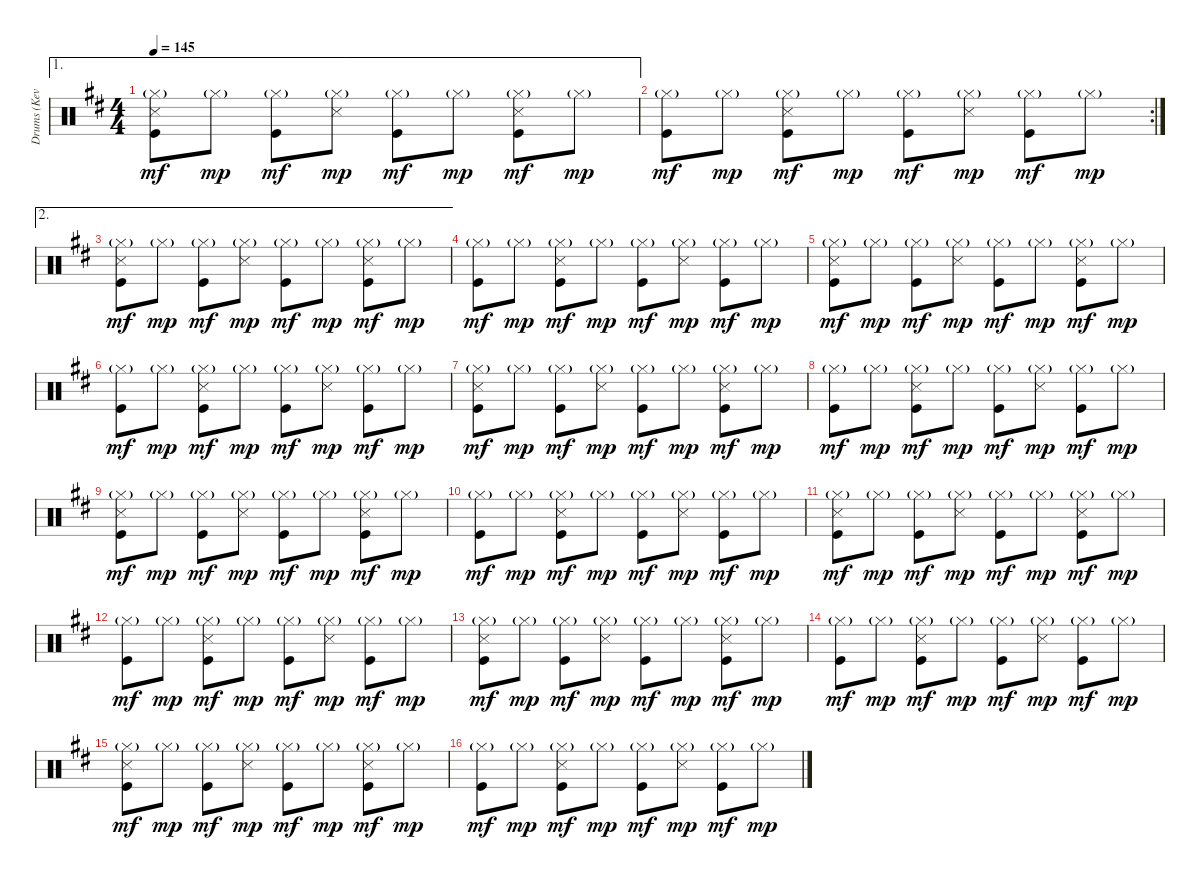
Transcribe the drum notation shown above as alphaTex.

\track ("Drums (Kevin Haskins)" "Drums (Kev") {instrument percussion}
\staff {score}
\articulation defaults
\ae 1
\ts (4 4)
\tempo 145
\clef neutral
\ks d
("Hi-Hat (closed)"{g} "Snare (side stick) 3" "Kick (hit)").8{dy mf} "Hi-Hat (closed)"{g}.8{dy mp} ("Hi-Hat (closed)"{g} "Kick (hit)").8{dy mf} ("Hi-Hat (closed)"{g} "Snare (side stick) 3").8{dy mp} ("Hi-Hat (closed)"{g} "Kick (hit)").8{dy mf} "Hi-Hat (closed)"{g}.8{dy mp} ("Hi-Hat (closed)"{g} "Snare (side stick) 3" "Kick (hit)").8{dy mf} "Hi-Hat (closed)"{g}.8{dy mp} |
\rc 2
("Hi-Hat (closed)"{g} "Kick (hit)").8{dy mf} "Hi-Hat (closed)"{g}.8{dy mp} ("Hi-Hat (closed)"{g} "Snare (side stick) 3" "Kick (hit)").8{dy mf} "Hi-Hat (closed)"{g}.8{dy mp} ("Hi-Hat (closed)"{g} "Kick (hit)").8{dy mf} ("Hi-Hat (closed)"{g} "Snare (side stick) 3").8{dy mp} ("Hi-Hat (closed)"{g} "Kick (hit)").8{dy mf} "Hi-Hat (closed)"{g}.8{dy mp} |
\ae 2
("Hi-Hat (closed)"{g} "Snare (side stick) 3" "Kick (hit)").8{dy mf} "Hi-Hat (closed)"{g}.8{dy mp} ("Hi-Hat (closed)"{g} "Kick (hit)").8{dy mf} ("Hi-Hat (closed)"{g} "Snare (side stick) 3").8{dy mp} ("Hi-Hat (closed)"{g} "Kick (hit)").8{dy mf} "Hi-Hat (closed)"{g}.8{dy mp} ("Hi-Hat (closed)"{g} "Snare (side stick) 3" "Kick (hit)").8{dy mf} "Hi-Hat (closed)"{g}.8{dy mp} |
("Hi-Hat (closed)"{g} "Kick (hit)").8{dy mf} "Hi-Hat (closed)"{g}.8{dy mp} ("Hi-Hat (closed)"{g} "Snare (side stick) 3" "Kick (hit)").8{dy mf} "Hi-Hat (closed)"{g}.8{dy mp} ("Hi-Hat (closed)"{g} "Kick (hit)").8{dy mf} ("Hi-Hat (closed)"{g} "Snare (side stick) 3").8{dy mp} ("Hi-Hat (closed)"{g} "Kick (hit)").8{dy mf} "Hi-Hat (closed)"{g}.8{dy mp} |
("Hi-Hat (closed)"{g} "Snare (side stick) 3" "Kick (hit)").8{dy mf} "Hi-Hat (closed)"{g}.8{dy mp} ("Hi-Hat (closed)"{g} "Kick (hit)").8{dy mf} ("Hi-Hat (closed)"{g} "Snare (side stick) 3").8{dy mp} ("Hi-Hat (closed)"{g} "Kick (hit)").8{dy mf} "Hi-Hat (closed)"{g}.8{dy mp} ("Hi-Hat (closed)"{g} "Snare (side stick) 3" "Kick (hit)").8{dy mf} "Hi-Hat (closed)"{g}.8{dy mp} |
("Hi-Hat (closed)"{g} "Kick (hit)").8{dy mf} "Hi-Hat (closed)"{g}.8{dy mp} ("Hi-Hat (closed)"{g} "Snare (side stick) 3" "Kick (hit)").8{dy mf} "Hi-Hat (closed)"{g}.8{dy mp} ("Hi-Hat (closed)"{g} "Kick (hit)").8{dy mf} ("Hi-Hat (closed)"{g} "Snare (side stick) 3").8{dy mp} ("Hi-Hat (closed)"{g} "Kick (hit)").8{dy mf} "Hi-Hat (closed)"{g}.8{dy mp} |
("Hi-Hat (closed)"{g} "Snare (side stick) 3" "Kick (hit)").8{dy mf} "Hi-Hat (closed)"{g}.8{dy mp} ("Hi-Hat (closed)"{g} "Kick (hit)").8{dy mf} ("Hi-Hat (closed)"{g} "Snare (side stick) 3").8{dy mp} ("Hi-Hat (closed)"{g} "Kick (hit)").8{dy mf} "Hi-Hat (closed)"{g}.8{dy mp} ("Hi-Hat (closed)"{g} "Snare (side stick) 3" "Kick (hit)").8{dy mf} "Hi-Hat (closed)"{g}.8{dy mp} |
("Hi-Hat (closed)"{g} "Kick (hit)").8{dy mf} "Hi-Hat (closed)"{g}.8{dy mp} ("Hi-Hat (closed)"{g} "Snare (side stick) 3" "Kick (hit)").8{dy mf} "Hi-Hat (closed)"{g}.8{dy mp} ("Hi-Hat (closed)"{g} "Kick (hit)").8{dy mf} ("Hi-Hat (closed)"{g} "Snare (side stick) 3").8{dy mp} ("Hi-Hat (closed)"{g} "Kick (hit)").8{dy mf} "Hi-Hat (closed)"{g}.8{dy mp} |
("Hi-Hat (closed)"{g} "Snare (side stick) 3" "Kick (hit)").8{dy mf} "Hi-Hat (closed)"{g}.8{dy mp} ("Hi-Hat (closed)"{g} "Kick (hit)").8{dy mf} ("Hi-Hat (closed)"{g} "Snare (side stick) 3").8{dy mp} ("Hi-Hat (closed)"{g} "Kick (hit)").8{dy mf} "Hi-Hat (closed)"{g}.8{dy mp} ("Hi-Hat (closed)"{g} "Snare (side stick) 3" "Kick (hit)").8{dy mf} "Hi-Hat (closed)"{g}.8{dy mp} |
("Hi-Hat (closed)"{g} "Kick (hit)").8{dy mf} "Hi-Hat (closed)"{g}.8{dy mp} ("Hi-Hat (closed)"{g} "Snare (side stick) 3" "Kick (hit)").8{dy mf} "Hi-Hat (closed)"{g}.8{dy mp} ("Hi-Hat (closed)"{g} "Kick (hit)").8{dy mf} ("Hi-Hat (closed)"{g} "Snare (side stick) 3").8{dy mp} ("Hi-Hat (closed)"{g} "Kick (hit)").8{dy mf} "Hi-Hat (closed)"{g}.8{dy mp} |
("Hi-Hat (closed)"{g} "Snare (side stick) 3" "Kick (hit)").8{dy mf} "Hi-Hat (closed)"{g}.8{dy mp} ("Hi-Hat (closed)"{g} "Kick (hit)").8{dy mf} ("Hi-Hat (closed)"{g} "Snare (side stick) 3").8{dy mp} ("Hi-Hat (closed)"{g} "Kick (hit)").8{dy mf} "Hi-Hat (closed)"{g}.8{dy mp} ("Hi-Hat (closed)"{g} "Snare (side stick) 3" "Kick (hit)").8{dy mf} "Hi-Hat (closed)"{g}.8{dy mp} |
("Hi-Hat (closed)"{g} "Kick (hit)").8{dy mf} "Hi-Hat (closed)"{g}.8{dy mp} ("Hi-Hat (closed)"{g} "Snare (side stick) 3" "Kick (hit)").8{dy mf} "Hi-Hat (closed)"{g}.8{dy mp} ("Hi-Hat (closed)"{g} "Kick (hit)").8{dy mf} ("Hi-Hat (closed)"{g} "Snare (side stick) 3").8{dy mp} ("Hi-Hat (closed)"{g} "Kick (hit)").8{dy mf} "Hi-Hat (closed)"{g}.8{dy mp} |
("Hi-Hat (closed)"{g} "Snare (side stick) 3" "Kick (hit)").8{dy mf} "Hi-Hat (closed)"{g}.8{dy mp} ("Hi-Hat (closed)"{g} "Kick (hit)").8{dy mf} ("Hi-Hat (closed)"{g} "Snare (side stick) 3").8{dy mp} ("Hi-Hat (closed)"{g} "Kick (hit)").8{dy mf} "Hi-Hat (closed)"{g}.8{dy mp} ("Hi-Hat (closed)"{g} "Snare (side stick) 3" "Kick (hit)").8{dy mf} "Hi-Hat (closed)"{g}.8{dy mp} |
("Hi-Hat (closed)"{g} "Kick (hit)").8{dy mf} "Hi-Hat (closed)"{g}.8{dy mp} ("Hi-Hat (closed)"{g} "Snare (side stick) 3" "Kick (hit)").8{dy mf} "Hi-Hat (closed)"{g}.8{dy mp} ("Hi-Hat (closed)"{g} "Kick (hit)").8{dy mf} ("Hi-Hat (closed)"{g} "Snare (side stick) 3").8{dy mp} ("Hi-Hat (closed)"{g} "Kick (hit)").8{dy mf} "Hi-Hat (closed)"{g}.8{dy mp} |
("Hi-Hat (closed)"{g} "Snare (side stick) 3" "Kick (hit)").8{dy mf} "Hi-Hat (closed)"{g}.8{dy mp} ("Hi-Hat (closed)"{g} "Kick (hit)").8{dy mf} ("Hi-Hat (closed)"{g} "Snare (side stick) 3").8{dy mp} ("Hi-Hat (closed)"{g} "Kick (hit)").8{dy mf} "Hi-Hat (closed)"{g}.8{dy mp} ("Hi-Hat (closed)"{g} "Snare (side stick) 3" "Kick (hit)").8{dy mf} "Hi-Hat (closed)"{g}.8{dy mp} |
("Hi-Hat (closed)"{g} "Kick (hit)").8{dy mf} "Hi-Hat (closed)"{g}.8{dy mp} ("Hi-Hat (closed)"{g} "Snare (side stick) 3" "Kick (hit)").8{dy mf} "Hi-Hat (closed)"{g}.8{dy mp} ("Hi-Hat (closed)"{g} "Kick (hit)").8{dy mf} ("Hi-Hat (closed)"{g} "Snare (side stick) 3").8{dy mp} ("Hi-Hat (closed)"{g} "Kick (hit)").8{dy mf} "Hi-Hat (closed)"{g}.8{dy mp}
